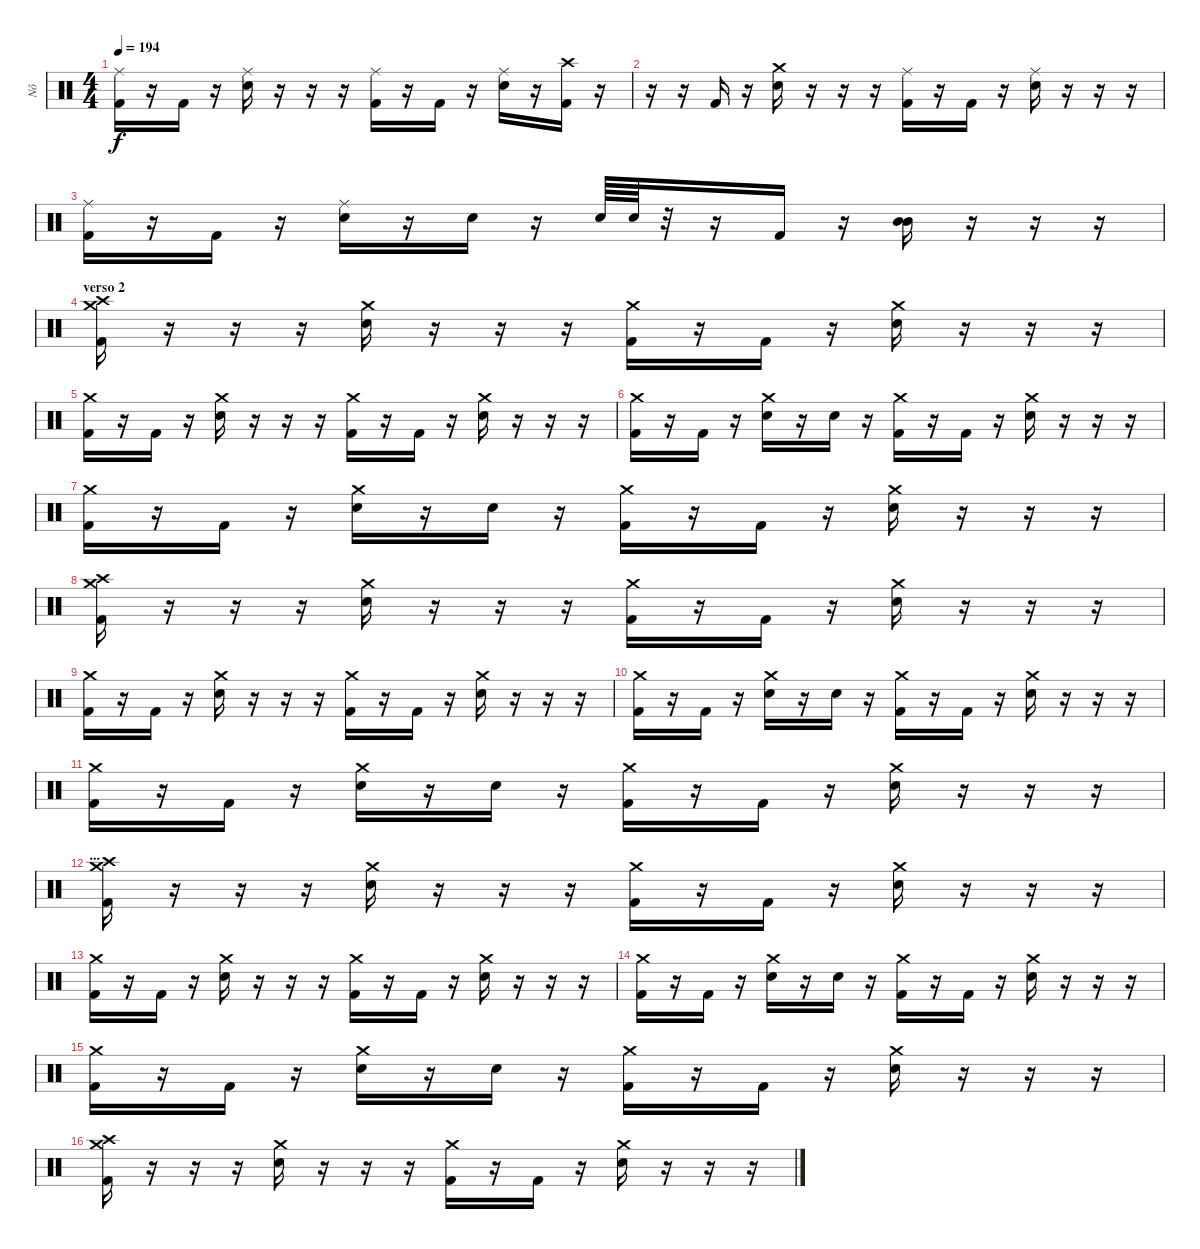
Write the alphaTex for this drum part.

\track ("Nô" "Nô") {instrument percussion}
\staff {score}
\articulation defaults
\ts (4 4)
\tempo 194
\clef neutral
\ks c
("Ride (middle)" "Kick (hit) 2").16{dy f} r.16 "Kick (hit) 2".16 r.16 ("Ride (middle)" "Electric Snare (hit)").16 r.16 r.16 r.16 ("Ride (middle)" "Kick (hit) 2").16 r.16 "Kick (hit) 2".16 r.16 ("Ride (middle)" "Electric Snare (hit)").16 r.16 ("Crash high (hit)" "Kick (hit) 2").16 r.16 |
r.16 r.16 "Kick (hit) 2".16 r.16 ("Crash medium (hit)" "Electric Snare (hit)").16 r.16 r.16 r.16 ("Ride (middle)" "Kick (hit) 2").16 r.16 "Kick (hit) 2".16 r.16 ("Ride (middle)" "Electric Snare (hit)").16 r.16 r.16 r.16 |
("Ride (middle)" "Kick (hit) 2").16 r.16 "Kick (hit) 2".16 r.16 ("Ride (middle)" "Electric Snare (hit)").16 r.16 "Snare (hit)".16 r.16 "Electric Snare (hit)".64 "Electric Snare (hit)".64 r.32 r.16 "Kick (hit) 2".16 r.16 ("Mid Tom (hit)" "Mid Tom (hit)").16 r.16 r.16 r.16 |
\section ("" "verso 2")
("Crash medium (hit)" "Crash high (hit)" "Kick (hit) 2").16 r.16 r.16 r.16 ("Crash medium (hit)" "Electric Snare (hit)").16 r.16 r.16 r.16 ("Crash medium (hit)" "Kick (hit) 2").16 r.16 "Kick (hit) 2".16 r.16 ("Crash medium (hit)" "Electric Snare (hit)").16 r.16 r.16 r.16 |
("Crash medium (hit)" "Kick (hit) 2").16 r.16 "Kick (hit) 2".16 r.16 ("Crash medium (hit)" "Electric Snare (hit)").16 r.16 r.16 r.16 ("Crash medium (hit)" "Kick (hit) 2").16 r.16 "Kick (hit) 2".16 r.16 ("Crash medium (hit)" "Electric Snare (hit)").16 r.16 r.16 r.16 |
("Crash medium (hit)" "Kick (hit) 2").16 r.16 "Kick (hit) 2".16 r.16 ("Crash medium (hit)" "Electric Snare (hit)").16 r.16 "Electric Snare (hit)".16 r.16 ("Crash medium (hit)" "Kick (hit) 2").16 r.16 "Kick (hit) 2".16 r.16 ("Crash medium (hit)" "Electric Snare (hit)").16 r.16 r.16 r.16 |
("Crash medium (hit)" "Kick (hit) 2").16 r.16 "Kick (hit) 2".16 r.16 ("Crash medium (hit)" "Electric Snare (hit)").16 r.16 "Electric Snare (hit)".16 r.16 ("Crash medium (hit)" "Kick (hit) 2").16 r.16 "Kick (hit) 2".16 r.16 ("Crash medium (hit)" "Electric Snare (hit)").16 r.16 r.16 r.16 |
("Crash medium (hit)" "Crash high (hit)" "Kick (hit) 2").16 r.16 r.16 r.16 ("Crash medium (hit)" "Electric Snare (hit)").16 r.16 r.16 r.16 ("Crash medium (hit)" "Kick (hit) 2").16 r.16 "Kick (hit) 2".16 r.16 ("Crash medium (hit)" "Electric Snare (hit)").16 r.16 r.16 r.16 |
("Crash medium (hit)" "Kick (hit) 2").16 r.16 "Kick (hit) 2".16 r.16 ("Crash medium (hit)" "Electric Snare (hit)").16 r.16 r.16 r.16 ("Crash medium (hit)" "Kick (hit) 2").16 r.16 "Kick (hit) 2".16 r.16 ("Crash medium (hit)" "Electric Snare (hit)").16 r.16 r.16 r.16 |
("Crash medium (hit)" "Kick (hit) 2").16 r.16 "Kick (hit) 2".16 r.16 ("Crash medium (hit)" "Electric Snare (hit)").16 r.16 "Electric Snare (hit)".16 r.16 ("Crash medium (hit)" "Kick (hit) 2").16 r.16 "Kick (hit) 2".16 r.16 ("Crash medium (hit)" "Electric Snare (hit)").16 r.16 r.16 r.16 |
("Crash medium (hit)" "Kick (hit) 2").16 r.16 "Kick (hit) 2".16 r.16 ("Crash medium (hit)" "Electric Snare (hit)").16 r.16 "Electric Snare (hit)".16 r.16 ("Crash medium (hit)" "Kick (hit) 2").16 r.16 "Kick (hit) 2".16 r.16 ("Crash medium (hit)" "Electric Snare (hit)").16 r.16 r.16 r.16 |
\section ("" "...")
("Crash medium (hit)" "Crash high (hit)" "Kick (hit) 2").16 r.16 r.16 r.16 ("Crash medium (hit)" "Electric Snare (hit)").16 r.16 r.16 r.16 ("Crash medium (hit)" "Kick (hit) 2").16 r.16 "Kick (hit) 2".16 r.16 ("Crash medium (hit)" "Electric Snare (hit)").16 r.16 r.16 r.16 |
("Crash medium (hit)" "Kick (hit) 2").16 r.16 "Kick (hit) 2".16 r.16 ("Crash medium (hit)" "Electric Snare (hit)").16 r.16 r.16 r.16 ("Crash medium (hit)" "Kick (hit) 2").16 r.16 "Kick (hit) 2".16 r.16 ("Crash medium (hit)" "Electric Snare (hit)").16 r.16 r.16 r.16 |
("Crash medium (hit)" "Kick (hit) 2").16 r.16 "Kick (hit) 2".16 r.16 ("Crash medium (hit)" "Electric Snare (hit)").16 r.16 "Electric Snare (hit)".16 r.16 ("Crash medium (hit)" "Kick (hit) 2").16 r.16 "Kick (hit) 2".16 r.16 ("Crash medium (hit)" "Electric Snare (hit)").16 r.16 r.16 r.16 |
("Crash medium (hit)" "Kick (hit) 2").16 r.16 "Kick (hit) 2".16 r.16 ("Crash medium (hit)" "Electric Snare (hit)").16 r.16 "Electric Snare (hit)".16 r.16 ("Crash medium (hit)" "Kick (hit) 2").16 r.16 "Kick (hit) 2".16 r.16 ("Crash medium (hit)" "Electric Snare (hit)").16 r.16 r.16 r.16 |
("Crash medium (hit)" "Crash high (hit)" "Kick (hit) 2").16 r.16 r.16 r.16 ("Crash medium (hit)" "Electric Snare (hit)").16 r.16 r.16 r.16 ("Crash medium (hit)" "Kick (hit) 2").16 r.16 "Kick (hit) 2".16 r.16 ("Crash medium (hit)" "Electric Snare (hit)").16 r.16 r.16 r.16
